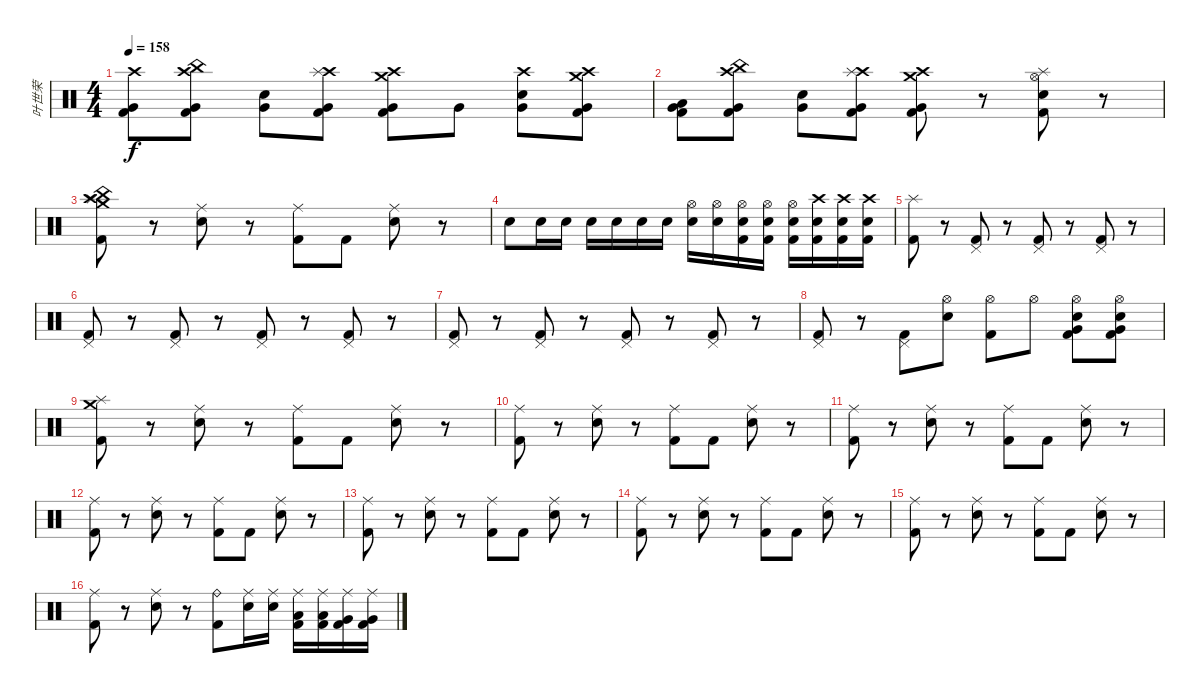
\track ("叶世荣" "叶世荣") {instrument percussion}
\staff {score}
\articulation defaults
\ts (4 4)
\tempo 158
\clef neutral
\ks c
("Crash high (hit)" "Kick (hit) 2" "Very Low Tom (hit)").8{dy f} ("Crash high (hit)" "China (hit)" "Kick (hit) 2" "Very Low Tom (hit)").8 ("Snare (hit) 2" "Very Low Tom (hit)").8 ("Crash high (hit)" "Splash (hit)" "Kick (hit) 2" "Very Low Tom (hit)").8 ("Crash high (hit)" "Crash medium (hit)" "Kick (hit) 2" "Very Low Tom (hit)").8 "Very Low Tom (hit)".8 ("Crash high (hit)" "Snare (hit) 2" "Very Low Tom (hit)").8 ("Crash high (hit)" "Crash medium (hit)" "Kick (hit) 2" "Very Low Tom (hit)").8 |
("Low Tom (hit)" "Kick (hit) 2" "Very Low Tom (hit)").8 ("Crash high (hit)" "China (hit)" "Kick (hit) 2" "Very Low Tom (hit)").8 ("Snare (hit) 2" "Very Low Tom (hit)").8 ("Crash high (hit)" "Splash (hit)" "Kick (hit) 2" "Very Low Tom (hit)").8 ("Crash high (hit)" "Crash medium (hit)" "Kick (hit) 2" "Very Low Tom (hit)").8 r.8 ("Hi-Hat (open)" "Splash (hit)" "Snare (hit) 2" "Kick (hit) 2").8 r.8 |
("Crash high (hit)" "Crash medium (hit)" "Splash (hit)" "China (hit)" "Kick (hit) 2").8 r.8 ("Ride (middle)" "Snare (hit) 2").8 r.8 ("Ride (middle)" "Kick (hit) 2").8 "Kick (hit) 2".8 ("Ride (middle)" "Snare (hit) 2").8 r.8 |
"Snare (hit) 2".8 "Snare (hit) 2".16 "Snare (hit) 2".16 "Snare (hit) 2".16 "Snare (hit) 2".16 "Snare (hit) 2".16 "Snare (hit) 2".16 ("Hi-Hat (open)" "Snare (hit) 2").16 ("Hi-Hat (open)" "Snare (hit) 2").16 ("Hi-Hat (open)" "Snare (hit) 2" "Kick (hit) 2").16 ("Hi-Hat (open)" "Snare (hit) 2" "Kick (hit) 2").16 ("Hi-Hat (open)" "Snare (hit) 2" "Kick (hit) 2").16 ("Crash high (hit)" "Snare (hit) 2" "Kick (hit) 2").16 ("Crash high (hit)" "Snare (hit) 2" "Kick (hit) 2").16 ("Crash high (hit)" "Snare (hit) 2" "Kick (hit) 2").16 |
("Splash (hit)" "Kick (hit) 2").8 r.8 ("Pedal Hi-Hat (hit)" "Kick (hit) 2").8 r.8 ("Pedal Hi-Hat (hit)" "Kick (hit) 2").8 r.8 ("Pedal Hi-Hat (hit)" "Kick (hit) 2").8 r.8 |
("Pedal Hi-Hat (hit)" "Kick (hit) 2").8 r.8 ("Pedal Hi-Hat (hit)" "Kick (hit) 2").8 r.8 ("Pedal Hi-Hat (hit)" "Kick (hit) 2").8 r.8 ("Pedal Hi-Hat (hit)" "Kick (hit) 2").8 r.8 |
("Pedal Hi-Hat (hit)" "Kick (hit) 2").8 r.8 ("Pedal Hi-Hat (hit)" "Kick (hit) 2").8 r.8 ("Pedal Hi-Hat (hit)" "Kick (hit) 2").8 r.8 ("Pedal Hi-Hat (hit)" "Kick (hit) 2").8 r.8 |
("Pedal Hi-Hat (hit)" "Kick (hit) 2").8 r.8 ("Pedal Hi-Hat (hit)" "Kick (hit) 2").8 ("Hi-Hat (open)" "Snare (hit) 2").8 ("Hi-Hat (open)" "Kick (hit) 2").8 "Hi-Hat (open)".8 ("Hi-Hat (open)" "Snare (hit) 2" "Very Low Tom (hit)" "Kick (hit) 2").8 ("Hi-Hat (open)" "Snare (hit) 2" "Very Low Tom (hit)" "Kick (hit) 2").8 |
("Crash medium (hit)" "Splash (hit)" "Kick (hit) 2").8 r.8 ("Ride (middle)" "Snare (hit) 2").8 r.8 ("Ride (middle)" "Kick (hit) 2").8 "Kick (hit) 2".8 ("Ride (middle)" "Snare (hit) 2").8 r.8 |
("Ride (middle)" "Kick (hit) 2").8 r.8 ("Ride (middle)" "Snare (hit) 2").8 r.8 ("Ride (middle)" "Kick (hit) 2").8 "Kick (hit) 2".8 ("Ride (middle)" "Snare (hit) 2").8 r.8 |
("Ride (middle)" "Kick (hit) 2").8 r.8 ("Ride (middle)" "Snare (hit) 2").8 r.8 ("Ride (middle)" "Kick (hit) 2").8 "Kick (hit) 2".8 ("Ride (middle)" "Snare (hit) 2").8 r.8 |
("Ride (middle)" "Kick (hit) 2").8 r.8 ("Ride (middle)" "Snare (hit) 2").8 r.8 ("Ride (middle)" "Kick (hit) 2").8 "Kick (hit) 2".8 ("Ride (middle)" "Snare (hit) 2").8 r.8 |
("Ride (middle)" "Kick (hit) 2").8 r.8 ("Ride (middle)" "Snare (hit) 2").8 r.8 ("Ride (middle)" "Kick (hit) 2").8 "Kick (hit) 2".8 ("Ride (middle)" "Snare (hit) 2").8 r.8 |
("Ride (middle)" "Kick (hit) 2").8 r.8 ("Ride (middle)" "Snare (hit) 2").8 r.8 ("Ride (middle)" "Kick (hit) 2").8 "Kick (hit) 2".8 ("Ride (middle)" "Snare (hit) 2").8 r.8 |
("Ride (middle)" "Kick (hit) 2").8 r.8 ("Ride (middle)" "Snare (hit) 2").8 r.8 ("Ride (middle)" "Kick (hit) 2").8 "Kick (hit) 2".8 ("Ride (middle)" "Snare (hit) 2").8 r.8 |
("Ride (middle)" "Kick (hit) 2").8 r.8 ("Ride (middle)" "Snare (hit) 2").8 r.8 ("Ride (bell)" "Kick (hit) 2").8 ("Ride (middle)" "Snare (hit) 2").16 ("Ride (middle)" "Snare (hit) 2").16 ("Ride (middle)" "Low Tom (hit)" "Kick (hit) 2").16 ("Ride (middle)" "Low Tom (hit)" "Kick (hit) 2").16 ("Ride (middle)" "Very Low Tom (hit)" "Kick (hit) 2").16 ("Ride (middle)" "Very Low Tom (hit)" "Kick (hit) 2").16
